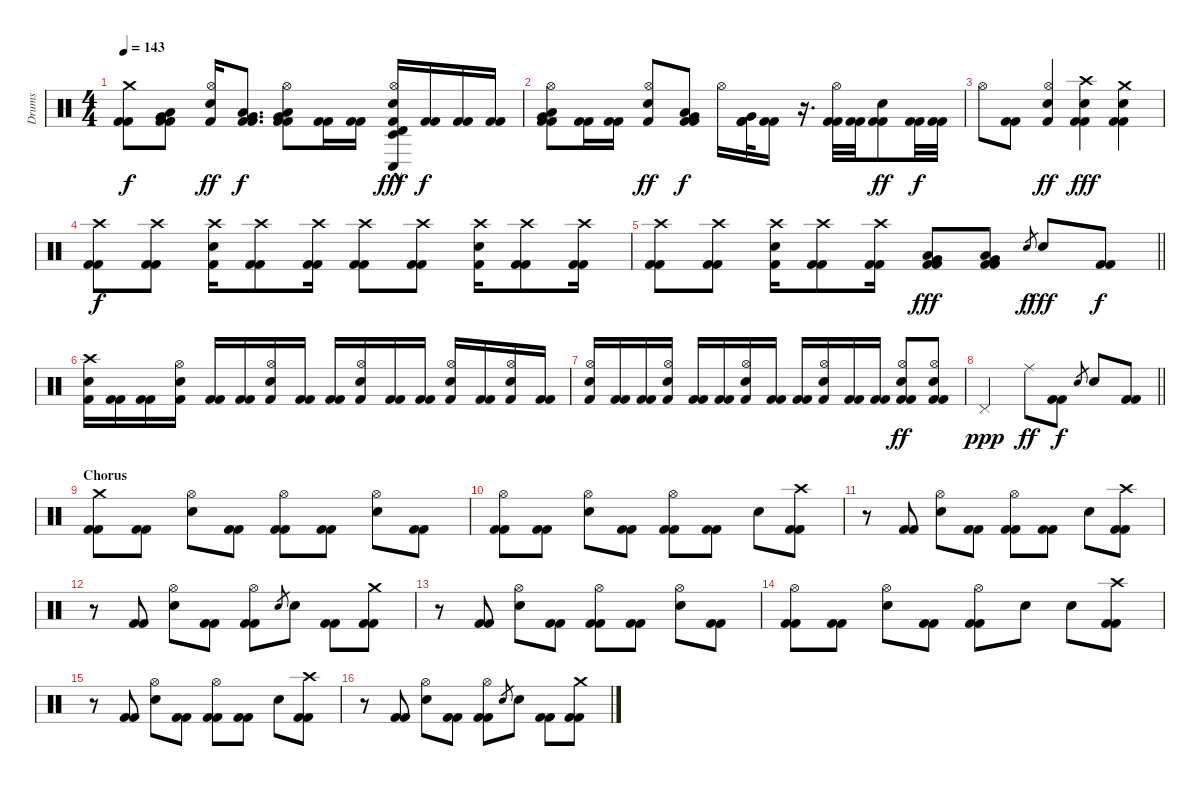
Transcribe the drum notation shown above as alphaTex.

\track ("Drums" "Drums") {instrument percussion}
\staff {score}
\articulation defaults
\ts (4 4)
\tempo 143
\clef neutral
\ks c
("Crash medium (hit)" "Kick (hit) 2" "Kick (hit) 2").8{dy f} ("Very Low Tom (hit)" "Low Floor Tom (hit)" "Kick (hit) 2" "Kick (hit) 2").8 ("Hi-Hat (open)" "Electric Snare (hit)" "Kick (hit) 2").16{dy ff} ("Very Low Tom (hit)" "Low Floor Tom (hit)" "Kick (hit) 2" "Kick (hit) 2").8{d dy f} ("Hi-Hat (open)" "Very Low Tom (hit)" "Low Floor Tom (hit)" "Kick (hit) 2" "Kick (hit) 2").8 ("Kick (hit) 2" "Kick (hit) 2").16 ("Kick (hit) 2" "Kick (hit) 2").16 ("Timbale low (hit)" "Timbale high (hit)" "Conga low (hit)" "Electric Snare (hit)" "Hi-Hat (open)"{hac} "Kick (hit) 2").16{dy fff} ("Kick (hit) 2" "Kick (hit) 2").16{dy f} ("Kick (hit) 2" "Kick (hit) 2").16 ("Kick (hit) 2" "Kick (hit) 2").16 |
("Hi-Hat (open)" "Very Low Tom (hit)" "Low Floor Tom (hit)" "Kick (hit) 2" "Kick (hit) 2").8 ("Kick (hit) 2" "Kick (hit) 2").16 ("Kick (hit) 2" "Kick (hit) 2").16 ("Hi-Hat (open)" "Electric Snare (hit)" "Kick (hit) 2").8{dy ff} ("Very Low Tom (hit)" "Low Floor Tom (hit)" "Kick (hit) 2" "Kick (hit) 2").8{dy f} "Hi-Hat (open)".16 ("Very Low Tom (hit)" "Kick (hit) 2" "Kick (hit) 2" "Kick (hit) 2").32 ("Kick (hit) 2" "Kick (hit) 2").16 r.16{d} ("Hi-Hat (open)" "Kick (hit) 2" "Kick (hit) 2").32 ("Kick (hit) 2" "Kick (hit) 2").32 ("Electric Snare (hit)" "Kick (hit) 2" "Kick (hit) 2").8{dy ff} ("Kick (hit) 2" "Kick (hit) 2").32{dy f} ("Kick (hit) 2" "Kick (hit) 2").32 |
"Hi-Hat (open)".8 ("Kick (hit) 2" "Kick (hit) 2").8 ("Hi-Hat (open)" "Electric Snare (hit)" "Kick (hit) 2").4{dy ff} ("Crash high (hit)" "Electric Snare (hit)" "Kick (hit) 2" "Kick (hit) 2").4{dy fff} ("Crash medium (hit)" "Electric Snare (hit)" "Kick (hit) 2" "Kick (hit) 2").4 |
("Crash high (hit)" "Kick (hit) 2" "Kick (hit) 2").8{dy f} ("Crash high (hit)" "Kick (hit) 2" "Kick (hit) 2").8 ("Crash high (hit)" "Electric Snare (hit)" "Kick (hit) 2").16 ("Crash high (hit)" "Kick (hit) 2" "Kick (hit) 2").8 ("Crash high (hit)" "Kick (hit) 2" "Kick (hit) 2").16 ("Crash high (hit)" "Kick (hit) 2" "Kick (hit) 2").8 ("Crash high (hit)" "Kick (hit) 2" "Kick (hit) 2").8 ("Crash high (hit)" "Electric Snare (hit)" "Kick (hit) 2").16 ("Crash high (hit)" "Kick (hit) 2" "Kick (hit) 2").8 ("Crash high (hit)" "Kick (hit) 2" "Kick (hit) 2").16 |
\barLineRight lightlight
("Crash high (hit)" "Kick (hit) 2" "Kick (hit) 2").8 ("Crash high (hit)" "Kick (hit) 2" "Kick (hit) 2").8 ("Crash high (hit)" "Electric Snare (hit)" "Kick (hit) 2").16 ("Crash high (hit)" "Kick (hit) 2" "Kick (hit) 2").8 ("Crash high (hit)" "Kick (hit) 2" "Kick (hit) 2").16 ("Very Low Tom (hit)" "Low Floor Tom (hit)" "Kick (hit) 2" "Kick (hit) 2").8{dy fff} ("Very Low Tom (hit)" "Low Floor Tom (hit)" "Kick (hit) 2" "Kick (hit) 2").8 "Electric Snare (hit)".8{gr dy f} "Electric Snare (hit)".8{dy fff} ("Kick (hit) 2" "Kick (hit) 2").8{dy f} |
("Crash high (hit)" "Electric Snare (hit)" "Kick (hit) 2").16 ("Kick (hit) 2" "Kick (hit) 2").16 ("Kick (hit) 2" "Kick (hit) 2").16 ("Hi-Hat (open)" "Electric Snare (hit)" "Kick (hit) 2").16 ("Kick (hit) 2" "Kick (hit) 2").16 ("Kick (hit) 2" "Kick (hit) 2").16 ("Hi-Hat (open)" "Electric Snare (hit)" "Kick (hit) 2").16 ("Kick (hit) 2" "Kick (hit) 2").16 ("Kick (hit) 2" "Kick (hit) 2").16 ("Hi-Hat (open)" "Electric Snare (hit)" "Kick (hit) 2").16 ("Kick (hit) 2" "Kick (hit) 2").16 ("Kick (hit) 2" "Kick (hit) 2").16 ("Hi-Hat (open)" "Electric Snare (hit)" "Kick (hit) 2").16 ("Kick (hit) 2" "Kick (hit) 2").16 ("Hi-Hat (open)" "Electric Snare (hit)" "Kick (hit) 2").16 ("Kick (hit) 2" "Kick (hit) 2").16 |
("Hi-Hat (open)" "Electric Snare (hit)" "Kick (hit) 2").16 ("Kick (hit) 2" "Kick (hit) 2").16 ("Kick (hit) 2" "Kick (hit) 2").16 ("Hi-Hat (open)" "Electric Snare (hit)" "Kick (hit) 2").16 ("Kick (hit) 2" "Kick (hit) 2").16 ("Kick (hit) 2" "Kick (hit) 2").16 ("Hi-Hat (open)" "Electric Snare (hit)" "Kick (hit) 2").16 ("Kick (hit) 2" "Kick (hit) 2").16 ("Kick (hit) 2" "Kick (hit) 2").16 ("Hi-Hat (open)" "Electric Snare (hit)" "Kick (hit) 2").16 ("Kick (hit) 2" "Kick (hit) 2").16 ("Kick (hit) 2" "Kick (hit) 2").16 ("Hi-Hat (open)" "Electric Snare (hit)" "Kick (hit) 2" "Kick (hit) 2").8{dy ff} ("Hi-Hat (open)" "Electric Snare (hit)" "Kick (hit) 2" "Kick (hit) 2").8 |
\barLineRight lightlight "Pedal Hi-Hat (hit)".2{dy ppp} "Ride (middle)".8{dy ff}
("Kick (hit) 2" "Kick (hit) 2").8{dy f} "Electric Snare (hit)".8{gr} "Electric Snare (hit)".8 ("Kick (hit) 2" "Kick (hit) 2").8 |
\section ("" "Chorus")
("Crash medium (hit)" "Kick (hit) 2" "Kick (hit) 2").8 ("Kick (hit) 2" "Kick (hit) 2").8 ("Hi-Hat (open)" "Electric Snare (hit)").8 ("Kick (hit) 2" "Kick (hit) 2").8 ("Hi-Hat (open)" "Kick (hit) 2" "Kick (hit) 2").8 ("Kick (hit) 2" "Kick (hit) 2").8 ("Hi-Hat (open)" "Electric Snare (hit)").8 ("Kick (hit) 2" "Kick (hit) 2").8 |
("Hi-Hat (open)" "Kick (hit) 2" "Kick (hit) 2").8 ("Kick (hit) 2" "Kick (hit) 2").8 ("Hi-Hat (open)" "Electric Snare (hit)").8 ("Kick (hit) 2" "Kick (hit) 2").8 ("Hi-Hat (open)" "Kick (hit) 2" "Kick (hit) 2").8 ("Kick (hit) 2" "Kick (hit) 2").8 "Electric Snare (hit)".8 ("Crash high (hit)" "Kick (hit) 2" "Kick (hit) 2").8 |
r.8 ("Kick (hit) 2" "Kick (hit) 2").8 ("Hi-Hat (open)" "Electric Snare (hit)").8 ("Kick (hit) 2" "Kick (hit) 2").8 ("Hi-Hat (open)" "Kick (hit) 2" "Kick (hit) 2").8 ("Kick (hit) 2" "Kick (hit) 2").8 "Electric Snare (hit)".8 ("Crash high (hit)" "Kick (hit) 2" "Kick (hit) 2").8 |
r.8 ("Kick (hit) 2" "Kick (hit) 2").8 ("Hi-Hat (open)" "Electric Snare (hit)").8 ("Kick (hit) 2" "Kick (hit) 2").8 ("Hi-Hat (open)" "Kick (hit) 2" "Kick (hit) 2").8 "Electric Snare (hit)".8{gr} "Electric Snare (hit)".8 ("Kick (hit) 2" "Kick (hit) 2").8 ("Crash medium (hit)" "Kick (hit) 2" "Kick (hit) 2").8 |
r.8 ("Kick (hit) 2" "Kick (hit) 2").8 ("Hi-Hat (open)" "Electric Snare (hit)").8 ("Kick (hit) 2" "Kick (hit) 2").8 ("Hi-Hat (open)" "Kick (hit) 2" "Kick (hit) 2").8 ("Kick (hit) 2" "Kick (hit) 2").8 ("Hi-Hat (open)" "Electric Snare (hit)").8 ("Kick (hit) 2" "Kick (hit) 2").8 |
("Hi-Hat (open)" "Kick (hit) 2" "Kick (hit) 2").8 ("Kick (hit) 2" "Kick (hit) 2").8 ("Hi-Hat (open)" "Electric Snare (hit)").8 ("Kick (hit) 2" "Kick (hit) 2").8 ("Hi-Hat (open)" "Kick (hit) 2" "Kick (hit) 2").8 "Electric Snare (hit)".8 "Electric Snare (hit)".8 ("Crash high (hit)" "Kick (hit) 2" "Kick (hit) 2").8 |
r.8 ("Kick (hit) 2" "Kick (hit) 2").8 ("Hi-Hat (open)" "Electric Snare (hit)").8 ("Kick (hit) 2" "Kick (hit) 2").8 ("Hi-Hat (open)" "Kick (hit) 2" "Kick (hit) 2").8 ("Kick (hit) 2" "Kick (hit) 2").8 "Electric Snare (hit)".8 ("Crash high (hit)" "Kick (hit) 2" "Kick (hit) 2").8 |
r.8 ("Kick (hit) 2" "Kick (hit) 2").8 ("Hi-Hat (open)" "Electric Snare (hit)").8 ("Kick (hit) 2" "Kick (hit) 2").8 ("Hi-Hat (open)" "Kick (hit) 2" "Kick (hit) 2").8 "Electric Snare (hit)".8{gr} "Electric Snare (hit)".8 ("Kick (hit) 2" "Kick (hit) 2").8 ("Crash medium (hit)" "Kick (hit) 2" "Kick (hit) 2").8
